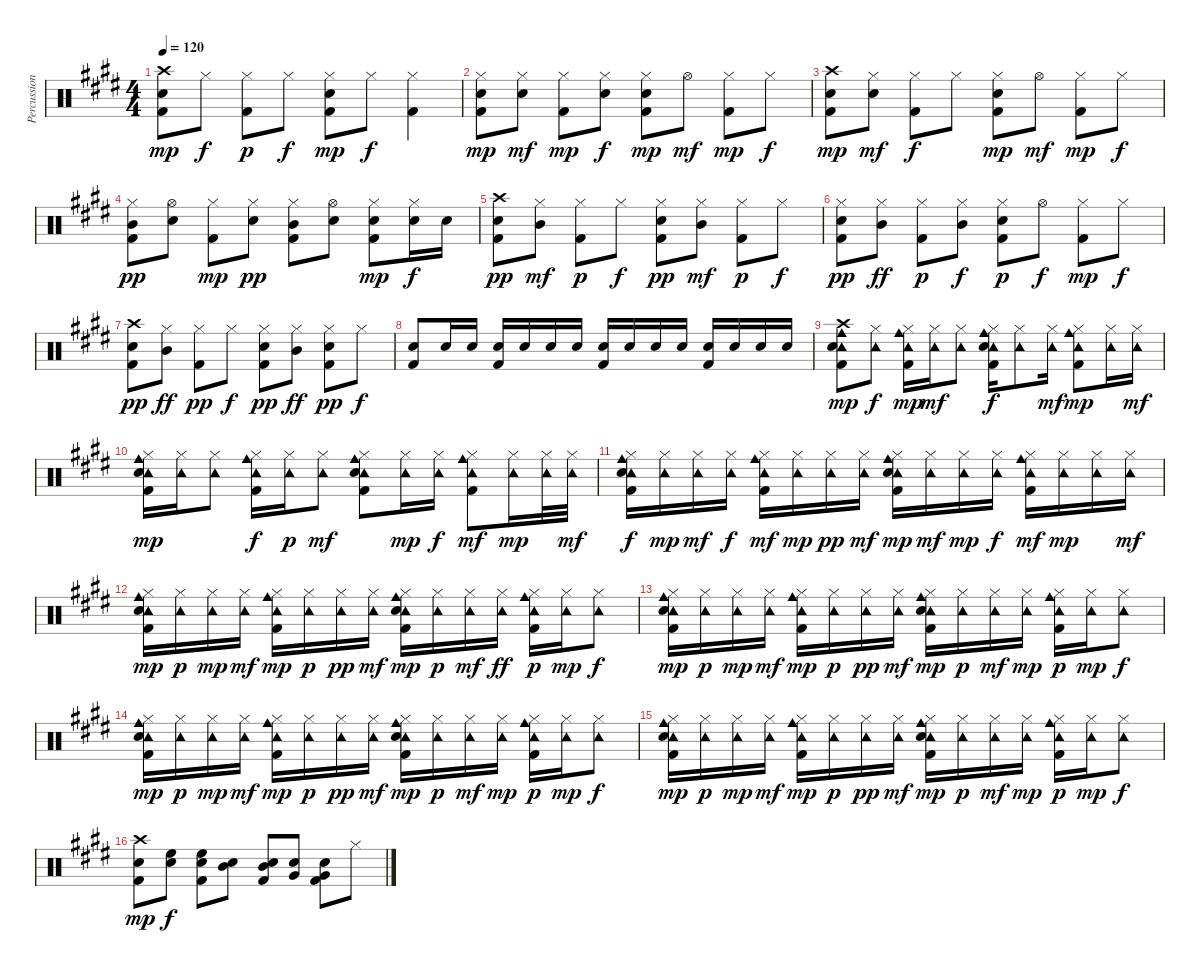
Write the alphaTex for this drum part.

\track ("Percussion" "Percussion") {instrument percussion}
\staff {score}
\articulation defaults
\ts (4 4)
\tempo 120
\clef neutral
\ks e
("Crash high (hit)" "Snare (hit) 2" "Kick (hit) 2").8{dy mp} "Hi-Hat (closed)".8{dy f} ("Hi-Hat (closed)" "Kick (hit) 2").8{dy p} "Hi-Hat (closed)".8{dy f} ("Hi-Hat (closed)" "Snare (hit) 2" "Kick (hit) 2").8{dy mp} "Hi-Hat (closed)".8{dy f} ("Hi-Hat (closed)" "Kick (hit) 2").4 |
("Hi-Hat (closed)" "Snare (hit) 2" "Kick (hit) 2").8{dy mp} ("Hi-Hat (closed)" "Snare (hit) 2").8{dy mf} ("Hi-Hat (closed)" "Kick (hit) 2").8{dy mp} ("Hi-Hat (closed)" "Snare (hit) 2").8{dy f} ("Hi-Hat (closed)" "Snare (hit) 2" "Kick (hit) 2").8{dy mp} "Hi-Hat (open)".8{dy mf} ("Hi-Hat (closed)" "Kick (hit) 2").8{dy mp} "Hi-Hat (closed)".8{dy f} |
("Crash high (hit)" "Snare (hit) 2" "Kick (hit) 2").8{dy mp} ("Hi-Hat (closed)" "Snare (hit) 2").8{dy mf} ("Hi-Hat (closed)" "Kick (hit) 2").8{dy f} "Hi-Hat (closed)".8 ("Hi-Hat (closed)" "Snare (hit) 2" "Kick (hit) 2").8{dy mp} "Hi-Hat (open)".8{dy mf} ("Hi-Hat (closed)" "Kick (hit) 2").8{dy mp} "Hi-Hat (closed)".8{dy f} |
("Hi-Hat (closed)" "Mid Tom (hit)" "Kick (hit) 2").8{dy pp} ("Hi-Hat (open)" "Snare (hit) 2").8 ("Hi-Hat (closed)" "Kick (hit) 2").8{dy mp} ("Hi-Hat (closed)" "Snare (hit) 2").8{dy pp} ("Hi-Hat (closed)" "Mid Tom (hit)" "Kick (hit) 2").8 ("Hi-Hat (open)" "Snare (hit) 2").8 ("Hi-Hat (closed)" "Snare (hit) 2" "Kick (hit) 2").8{dy mp} ("Hi-Hat (closed)" "Snare (hit) 2").16{dy f} "Snare (hit) 2".16 |
("Crash high (hit)" "Snare (hit) 2" "Kick (hit) 2").8{dy pp} ("Hi-Hat (closed)" "Mid Tom (hit)").8{dy mf} ("Hi-Hat (closed)" "Kick (hit) 2").8{dy p} "Hi-Hat (closed)".8{dy f} ("Hi-Hat (closed)" "Snare (hit) 2" "Kick (hit) 2").8{dy pp} ("Hi-Hat (closed)" "Mid Tom (hit)").8{dy mf} ("Hi-Hat (closed)" "Kick (hit) 2").8{dy p} "Hi-Hat (closed)".8{dy f} |
("Hi-Hat (closed)" "Snare (hit) 2" "Kick (hit) 2").8{dy pp} ("Hi-Hat (closed)" "Mid Tom (hit)").8{dy ff} ("Hi-Hat (closed)" "Kick (hit) 2").8{dy p} ("Hi-Hat (closed)" "Mid Tom (hit)").8{dy f} ("Hi-Hat (closed)" "Snare (hit) 2" "Kick (hit) 2").8{dy p} "Hi-Hat (open)".8{dy f} ("Hi-Hat (closed)" "Kick (hit) 2").8{dy mp} "Hi-Hat (closed)".8{dy f} |
("Crash high (hit)" "Snare (hit) 2" "Kick (hit) 2").8{dy pp} ("Hi-Hat (closed)" "Mid Tom (hit)").8{dy ff} ("Hi-Hat (closed)" "Kick (hit) 2").8{dy pp} "Hi-Hat (closed)".8{dy f} ("Hi-Hat (closed)" "Snare (hit) 2" "Kick (hit) 2").8{dy pp} ("Hi-Hat (closed)" "Mid Tom (hit)").8{dy ff} ("Hi-Hat (closed)" "Snare (hit) 2" "Kick (hit) 2").8{dy pp} "Hi-Hat (closed)".8{dy f} |
("Snare (hit) 2" "Kick (hit) 2").8 "Snare (hit) 2".16 "Snare (hit) 2".16 ("Snare (hit) 2" "Kick (hit) 2").16 "Snare (hit) 2".16 "Snare (hit) 2".16 "Snare (hit) 2".16 ("Snare (hit) 2" "Kick (hit) 2").16 "Snare (hit) 2".16 "Snare (hit) 2".16 "Snare (hit) 2".16 ("Snare (hit) 2" "Kick (hit) 2").16 "Snare (hit) 2".16 "Snare (hit) 2".16 "Snare (hit) 2".16 |
("Crash high (hit)" "Tambourine (hit)" "Cowbell medium (hit)" "Snare (hit) 2" "Kick (hit) 2").8{dy mp} ("Hi-Hat (closed)" "Tambourine (hit)").8{dy f} ("Hi-Hat (closed)" "Tambourine (hit)" "Cowbell medium (hit)" "Kick (hit) 2").16{dy mp} ("Hi-Hat (closed)" "Tambourine (hit)").16{dy mf} ("Hi-Hat (closed)" "Tambourine (hit)").8 ("Hi-Hat (closed)" "Tambourine (hit)" "Cowbell medium (hit)" "Snare (hit) 2" "Kick (hit) 2").16{dy f} ("Hi-Hat (closed)" "Tambourine (hit)").8 ("Hi-Hat (closed)" "Tambourine (hit)").16{dy mf} ("Hi-Hat (closed)" "Tambourine (hit)" "Cowbell medium (hit)" "Kick (hit) 2").8{dy mp} ("Hi-Hat (closed)" "Tambourine (hit)").16 ("Hi-Hat (closed)" "Tambourine (hit)").16{dy mf} |
("Hi-Hat (closed)" "Tambourine (hit)" "Cowbell medium (hit)" "Snare (hit) 2" "Kick (hit) 2").16{dy mp} ("Hi-Hat (closed)" "Tambourine (hit)").16 ("Hi-Hat (closed)" "Tambourine (hit)").8 ("Hi-Hat (closed)" "Tambourine (hit)" "Cowbell medium (hit)" "Kick (hit) 2").16{dy f} ("Hi-Hat (closed)" "Tambourine (hit)").16{dy p} ("Hi-Hat (closed)" "Tambourine (hit)").8{dy mf} ("Hi-Hat (closed)" "Tambourine (hit)" "Cowbell medium (hit)" "Snare (hit) 2" "Kick (hit) 2").8 ("Hi-Hat (closed)" "Tambourine (hit)").16{dy mp} ("Hi-Hat (closed)" "Tambourine (hit)").16{dy f} ("Hi-Hat (closed)" "Tambourine (hit)" "Cowbell medium (hit)" "Kick (hit) 2").8{dy mf} ("Hi-Hat (closed)" "Tambourine (hit)").16{dy mp} ("Hi-Hat (closed)" "Tambourine (hit)").32 ("Hi-Hat (closed)" "Tambourine (hit)").32{dy mf} |
("Hi-Hat (closed)" "Tambourine (hit)" "Cowbell medium (hit)" "Snare (hit) 2" "Kick (hit) 2").16{dy f} ("Hi-Hat (closed)" "Tambourine (hit)").16{dy mp} ("Hi-Hat (closed)" "Tambourine (hit)").16{dy mf} ("Hi-Hat (closed)" "Tambourine (hit)").16{dy f} ("Hi-Hat (closed)" "Tambourine (hit)" "Cowbell medium (hit)" "Kick (hit) 2").16{dy mf} ("Hi-Hat (closed)" "Tambourine (hit)").16{dy mp} ("Hi-Hat (closed)" "Tambourine (hit)").16{dy pp} ("Hi-Hat (closed)" "Tambourine (hit)").16{dy mf} ("Hi-Hat (closed)" "Tambourine (hit)" "Cowbell medium (hit)" "Snare (hit) 2" "Kick (hit) 2").16{dy mp} ("Hi-Hat (closed)" "Tambourine (hit)").16{dy mf} ("Hi-Hat (closed)" "Tambourine (hit)").16{dy mp} ("Hi-Hat (closed)" "Tambourine (hit)").16{dy f} ("Hi-Hat (closed)" "Tambourine (hit)" "Cowbell medium (hit)" "Kick (hit) 2").16{dy mf} ("Hi-Hat (closed)" "Tambourine (hit)").16{dy mp} ("Hi-Hat (closed)" "Tambourine (hit)").16 ("Hi-Hat (closed)" "Tambourine (hit)").16{dy mf} |
("Hi-Hat (closed)" "Tambourine (hit)" "Cowbell medium (hit)" "Snare (hit) 2" "Kick (hit) 2").16{dy mp} ("Hi-Hat (closed)" "Tambourine (hit)").16{dy p} ("Hi-Hat (closed)" "Tambourine (hit)").16{dy mp} ("Hi-Hat (closed)" "Tambourine (hit)").16{dy mf} ("Hi-Hat (closed)" "Tambourine (hit)" "Cowbell medium (hit)" "Kick (hit) 2").16{dy mp} ("Hi-Hat (closed)" "Tambourine (hit)").16{dy p} ("Hi-Hat (closed)" "Tambourine (hit)").16{dy pp} ("Hi-Hat (closed)" "Tambourine (hit)").16{dy mf} ("Hi-Hat (closed)" "Tambourine (hit)" "Cowbell medium (hit)" "Snare (hit) 2" "Kick (hit) 2").16{dy mp} ("Hi-Hat (closed)" "Tambourine (hit)").16{dy p} ("Hi-Hat (closed)" "Tambourine (hit)").16{dy mf} ("Hi-Hat (closed)" "Tambourine (hit)").16{dy ff} ("Hi-Hat (closed)" "Tambourine (hit)" "Cowbell medium (hit)" "Kick (hit) 2").16{dy p} ("Hi-Hat (closed)" "Tambourine (hit)").16{dy mp} ("Hi-Hat (closed)" "Tambourine (hit)").8{dy f} |
("Hi-Hat (closed)" "Tambourine (hit)" "Cowbell medium (hit)" "Snare (hit) 2" "Kick (hit) 2").16{dy mp} ("Hi-Hat (closed)" "Tambourine (hit)").16{dy p} ("Hi-Hat (closed)" "Tambourine (hit)").16{dy mp} ("Hi-Hat (closed)" "Tambourine (hit)").16{dy mf} ("Hi-Hat (closed)" "Tambourine (hit)" "Cowbell medium (hit)" "Kick (hit) 2").16{dy mp} ("Hi-Hat (closed)" "Tambourine (hit)").16{dy p} ("Hi-Hat (closed)" "Tambourine (hit)").16{dy pp} ("Hi-Hat (closed)" "Tambourine (hit)").16{dy mf} ("Hi-Hat (closed)" "Tambourine (hit)" "Cowbell medium (hit)" "Snare (hit) 2" "Kick (hit) 2").16{dy mp} ("Hi-Hat (closed)" "Tambourine (hit)").16{dy p} ("Hi-Hat (closed)" "Tambourine (hit)").16{dy mf} ("Hi-Hat (closed)" "Tambourine (hit)").16{dy mp} ("Hi-Hat (closed)" "Tambourine (hit)" "Cowbell medium (hit)" "Kick (hit) 2").16{dy p} ("Hi-Hat (closed)" "Tambourine (hit)").16{dy mp} ("Hi-Hat (closed)" "Tambourine (hit)").8{dy f} |
("Hi-Hat (closed)" "Tambourine (hit)" "Cowbell medium (hit)" "Snare (hit) 2" "Kick (hit) 2").16{dy mp} ("Hi-Hat (closed)" "Tambourine (hit)").16{dy p} ("Hi-Hat (closed)" "Tambourine (hit)").16{dy mp} ("Hi-Hat (closed)" "Tambourine (hit)").16{dy mf} ("Hi-Hat (closed)" "Tambourine (hit)" "Cowbell medium (hit)" "Kick (hit) 2").16{dy mp} ("Hi-Hat (closed)" "Tambourine (hit)").16{dy p} ("Hi-Hat (closed)" "Tambourine (hit)").16{dy pp} ("Hi-Hat (closed)" "Tambourine (hit)").16{dy mf} ("Hi-Hat (closed)" "Tambourine (hit)" "Cowbell medium (hit)" "Snare (hit) 2" "Kick (hit) 2").16{dy mp} ("Hi-Hat (closed)" "Tambourine (hit)").16{dy p} ("Hi-Hat (closed)" "Tambourine (hit)").16{dy mf} ("Hi-Hat (closed)" "Tambourine (hit)").16{dy mp} ("Hi-Hat (closed)" "Tambourine (hit)" "Cowbell medium (hit)" "Kick (hit) 2").16{dy p} ("Hi-Hat (closed)" "Tambourine (hit)").16{dy mp} ("Hi-Hat (closed)" "Tambourine (hit)").8{dy f} |
("Hi-Hat (closed)" "Tambourine (hit)" "Cowbell medium (hit)" "Snare (hit) 2" "Kick (hit) 2").16{dy mp} ("Hi-Hat (closed)" "Tambourine (hit)").16{dy p} ("Hi-Hat (closed)" "Tambourine (hit)").16{dy mp} ("Hi-Hat (closed)" "Tambourine (hit)").16{dy mf} ("Hi-Hat (closed)" "Tambourine (hit)" "Cowbell medium (hit)" "Kick (hit) 2").16{dy mp} ("Hi-Hat (closed)" "Tambourine (hit)").16{dy p} ("Hi-Hat (closed)" "Tambourine (hit)").16{dy pp} ("Hi-Hat (closed)" "Tambourine (hit)").16{dy mf} ("Hi-Hat (closed)" "Tambourine (hit)" "Cowbell medium (hit)" "Snare (hit) 2" "Kick (hit) 2").16{dy mp} ("Hi-Hat (closed)" "Tambourine (hit)").16{dy p} ("Hi-Hat (closed)" "Tambourine (hit)").16{dy mf} ("Hi-Hat (closed)" "Tambourine (hit)").16{dy mp} ("Hi-Hat (closed)" "Tambourine (hit)" "Cowbell medium (hit)" "Kick (hit) 2").16{dy p} ("Hi-Hat (closed)" "Tambourine (hit)").16{dy mp} ("Hi-Hat (closed)" "Tambourine (hit)").8{dy f} |
("Crash high (hit)" "Snare (hit) 2" "Kick (hit) 2").8{dy mp} ("High Floor Tom (hit)" "Snare (hit) 2").8{dy f} ("High Floor Tom (hit)" "Snare (hit) 2" "Kick (hit) 2").8 ("Mid Tom (hit)" "Snare (hit) 2").8 ("Mid Tom (hit)" "Snare (hit) 2" "Kick (hit) 2").8 ("Very Low Tom (hit)" "Snare (hit) 2").8 ("Very Low Tom (hit)" "Snare (hit) 2" "Kick (hit) 2").8 "Hi-Hat (closed)".8
